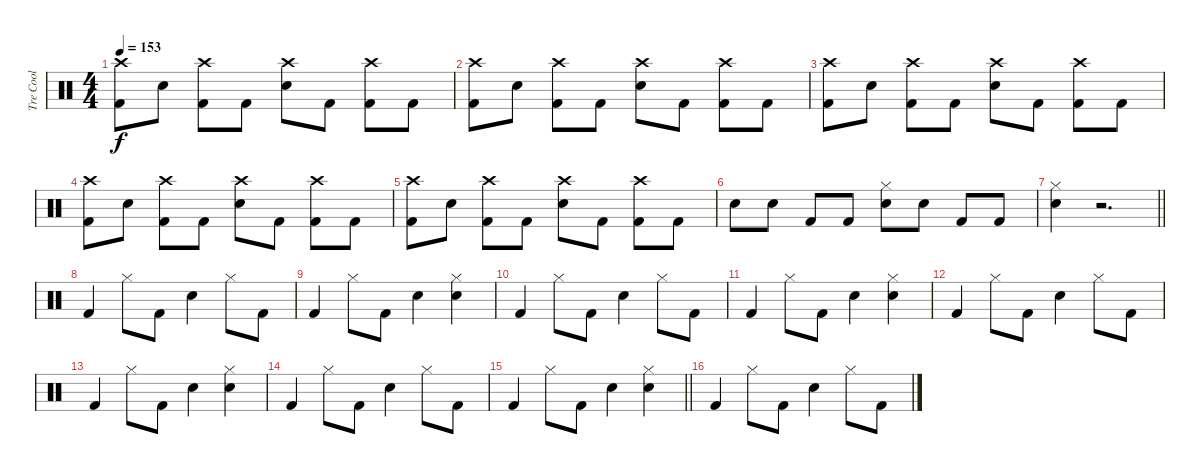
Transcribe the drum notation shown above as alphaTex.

\track ("Tre Cool" "Tre Cool") {instrument percussion}
\staff {score}
\articulation defaults
\ts (4 4)
\tempo 153
\clef neutral
\ks c
("Kick (hit) 2" "Crash high (hit)").8{dy f} "Snare (hit) 2".8 ("Kick (hit) 2" "Crash high (hit)").8 "Kick (hit) 2".8 ("Snare (hit) 2" "Crash high (hit)").8 "Kick (hit) 2".8 ("Kick (hit) 2" "Crash high (hit)").8 "Kick (hit) 2".8 |
("Kick (hit) 2" "Crash high (hit)").8 "Snare (hit) 2".8 ("Kick (hit) 2" "Crash high (hit)").8 "Kick (hit) 2".8 ("Snare (hit) 2" "Crash high (hit)").8 "Kick (hit) 2".8 ("Kick (hit) 2" "Crash high (hit)").8 "Kick (hit) 2".8 |
("Kick (hit) 2" "Crash high (hit)").8 "Snare (hit) 2".8 ("Kick (hit) 2" "Crash high (hit)").8 "Kick (hit) 2".8 ("Snare (hit) 2" "Crash high (hit)").8 "Kick (hit) 2".8 ("Kick (hit) 2" "Crash high (hit)").8 "Kick (hit) 2".8 |
("Kick (hit) 2" "Crash high (hit)").8 "Snare (hit) 2".8 ("Kick (hit) 2" "Crash high (hit)").8 "Kick (hit) 2".8 ("Snare (hit) 2" "Crash high (hit)").8 "Kick (hit) 2".8 ("Kick (hit) 2" "Crash high (hit)").8 "Kick (hit) 2".8 |
("Kick (hit) 2" "Crash high (hit)").8 "Snare (hit) 2".8 ("Kick (hit) 2" "Crash high (hit)").8 "Kick (hit) 2".8 ("Snare (hit) 2" "Crash high (hit)").8 "Kick (hit) 2".8 ("Kick (hit) 2" "Crash high (hit)").8 "Kick (hit) 2".8 |
"Snare (hit) 2".8 "Snare (hit) 2".8 "Kick (hit) 2".8 "Kick (hit) 2".8 ("Snare (hit) 2" "Hi-Hat (closed)").8 "Snare (hit) 2".8 "Kick (hit) 2".8 "Kick (hit) 2".8 |
\barLineRight lightlight
("Snare (hit) 2" "Hi-Hat (closed)").4 r.2{d} |
"Kick (hit) 2".4 "Hi-Hat (closed)".8 "Kick (hit) 2".8 "Snare (hit) 2".4 "Hi-Hat (closed)".8 "Kick (hit) 2".8 |
"Kick (hit) 2".4 "Hi-Hat (closed)".8 "Kick (hit) 2".8 "Snare (hit) 2".4 ("Snare (hit) 2" "Hi-Hat (closed)").4 |
"Kick (hit) 2".4 "Hi-Hat (closed)".8 "Kick (hit) 2".8 "Snare (hit) 2".4 "Hi-Hat (closed)".8 "Kick (hit) 2".8 |
"Kick (hit) 2".4 "Hi-Hat (closed)".8 "Kick (hit) 2".8 "Snare (hit) 2".4 ("Snare (hit) 2" "Hi-Hat (closed)").4 |
"Kick (hit) 2".4 "Hi-Hat (closed)".8 "Kick (hit) 2".8 "Snare (hit) 2".4 "Hi-Hat (closed)".8 "Kick (hit) 2".8 |
"Kick (hit) 2".4 "Hi-Hat (closed)".8 "Kick (hit) 2".8 "Snare (hit) 2".4 ("Snare (hit) 2" "Hi-Hat (closed)").4 |
"Kick (hit) 2".4 "Hi-Hat (closed)".8 "Kick (hit) 2".8 "Snare (hit) 2".4 "Hi-Hat (closed)".8 "Kick (hit) 2".8 |
\barLineRight lightlight "Kick (hit) 2".4 "Hi-Hat (closed)".8 "Kick (hit) 2".8 "Snare (hit) 2".4
("Snare (hit) 2" "Hi-Hat (closed)").4 |
"Kick (hit) 2".4 "Hi-Hat (closed)".8 "Kick (hit) 2".8 "Snare (hit) 2".4 "Hi-Hat (closed)".8 "Kick (hit) 2".8
